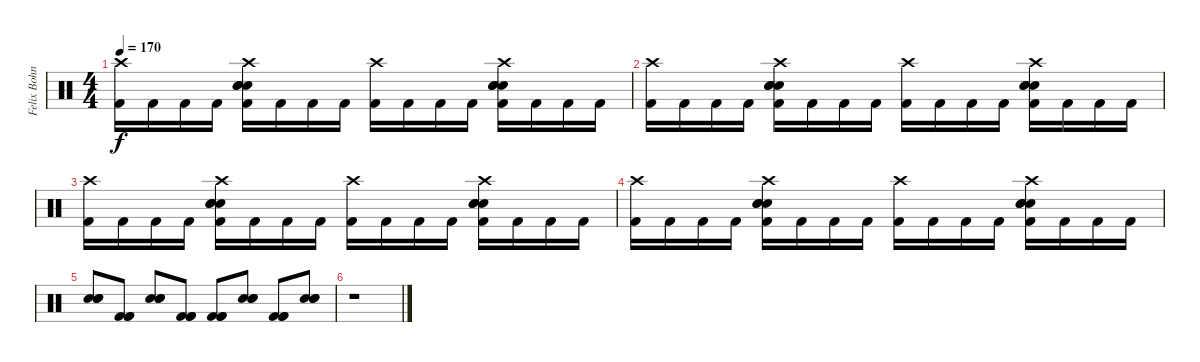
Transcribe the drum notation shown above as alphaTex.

\track ("Felix Bohnke - Drums" "Felix Bohn") {instrument percussion}
\staff {score}
\articulation defaults
\ts (4 4)
\tempo 170
\clef neutral
\ks c
("Crash high (hit)" "Kick (hit) 2").16{dy f} "Kick (hit) 2".16 "Kick (hit) 2".16 "Kick (hit) 2".16 ("Crash high (hit)" "Electric Snare (hit)" "Electric Snare (hit)" "Electric Snare (hit)" "Kick (hit) 2").16 "Kick (hit) 2".16 "Kick (hit) 2".16 "Kick (hit) 2".16 ("Crash high (hit)" "Kick (hit) 2").16 "Kick (hit) 2".16 "Kick (hit) 2".16 "Kick (hit) 2".16 ("Crash high (hit)" "Electric Snare (hit)" "Electric Snare (hit)" "Electric Snare (hit)" "Kick (hit) 2").16 "Kick (hit) 2".16 "Kick (hit) 2".16 "Kick (hit) 2".16 |
("Crash high (hit)" "Kick (hit) 2").16 "Kick (hit) 2".16 "Kick (hit) 2".16 "Kick (hit) 2".16 ("Crash high (hit)" "Electric Snare (hit)" "Electric Snare (hit)" "Electric Snare (hit)" "Kick (hit) 2").16 "Kick (hit) 2".16 "Kick (hit) 2".16 "Kick (hit) 2".16 ("Crash high (hit)" "Kick (hit) 2").16 "Kick (hit) 2".16 "Kick (hit) 2".16 "Kick (hit) 2".16 ("Crash high (hit)" "Electric Snare (hit)" "Electric Snare (hit)" "Electric Snare (hit)" "Kick (hit) 2").16 "Kick (hit) 2".16 "Kick (hit) 2".16 "Kick (hit) 2".16 |
("Crash high (hit)" "Kick (hit) 2").16 "Kick (hit) 2".16 "Kick (hit) 2".16 "Kick (hit) 2".16 ("Crash high (hit)" "Electric Snare (hit)" "Electric Snare (hit)" "Electric Snare (hit)" "Kick (hit) 2").16 "Kick (hit) 2".16 "Kick (hit) 2".16 "Kick (hit) 2".16 ("Crash high (hit)" "Kick (hit) 2").16 "Kick (hit) 2".16 "Kick (hit) 2".16 "Kick (hit) 2".16 ("Crash high (hit)" "Electric Snare (hit)" "Electric Snare (hit)" "Electric Snare (hit)" "Kick (hit) 2").16 "Kick (hit) 2".16 "Kick (hit) 2".16 "Kick (hit) 2".16 |
("Crash high (hit)" "Kick (hit) 2").16 "Kick (hit) 2".16 "Kick (hit) 2".16 "Kick (hit) 2".16 ("Crash high (hit)" "Electric Snare (hit)" "Electric Snare (hit)" "Electric Snare (hit)" "Kick (hit) 2").16 "Kick (hit) 2".16 "Kick (hit) 2".16 "Kick (hit) 2".16 ("Crash high (hit)" "Kick (hit) 2").16 "Kick (hit) 2".16 "Kick (hit) 2".16 "Kick (hit) 2".16 ("Crash high (hit)" "Electric Snare (hit)" "Electric Snare (hit)" "Electric Snare (hit)" "Kick (hit) 2").16 "Kick (hit) 2".16 "Kick (hit) 2".16 "Kick (hit) 2".16 |
("Electric Snare (hit)" "Electric Snare (hit)" "Electric Snare (hit)").8 ("Kick (hit) 2" "Kick (hit) 2" "Kick (hit) 2").8 ("Electric Snare (hit)" "Electric Snare (hit)" "Electric Snare (hit)").8 ("Kick (hit) 2" "Kick (hit) 2" "Kick (hit) 2").8 ("Kick (hit) 2" "Kick (hit) 2" "Kick (hit) 2").8 ("Electric Snare (hit)" "Electric Snare (hit)" "Electric Snare (hit)").8 ("Kick (hit) 2" "Kick (hit) 2" "Kick (hit) 2").8 ("Electric Snare (hit)" "Electric Snare (hit)" "Electric Snare (hit)").8 |
r.1
